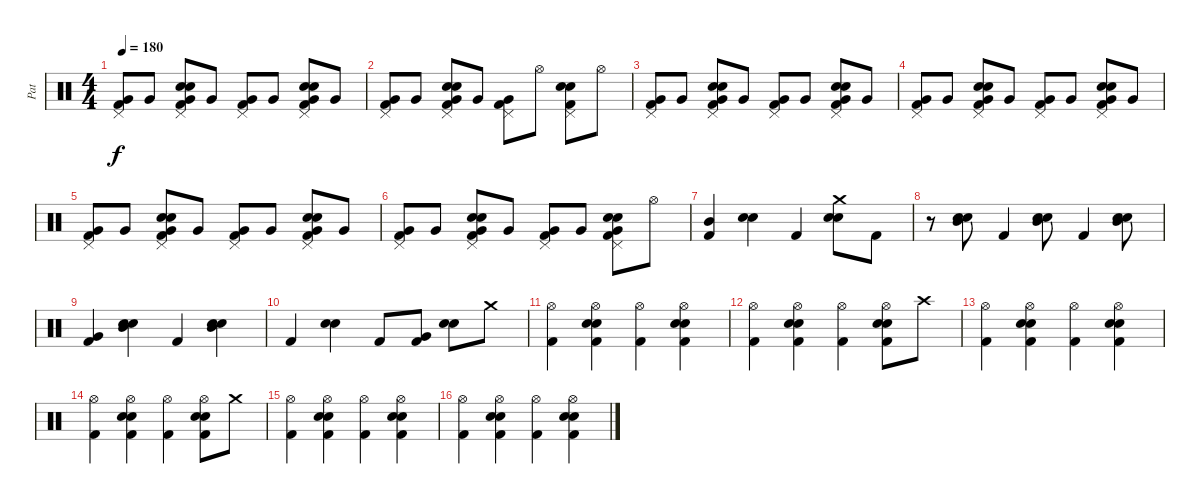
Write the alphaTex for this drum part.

\track ("Pat" "Pat") {instrument percussion}
\staff {score}
\articulation defaults
\ts (4 4)
\tempo 180
\clef neutral
\ks c
("Pedal Hi-Hat (hit)" "Very Low Tom (hit)" "Kick (hit) 2").8{dy f} "Very Low Tom (hit)".8 ("Pedal Hi-Hat (hit)" "Very Low Tom (hit)" "Snare (hit) 2" "Electric Snare (hit)" "Kick (hit) 2").8 "Very Low Tom (hit)".8 ("Pedal Hi-Hat (hit)" "Very Low Tom (hit)" "Kick (hit) 2").8 "Very Low Tom (hit)".8 ("Pedal Hi-Hat (hit)" "Very Low Tom (hit)" "Snare (hit) 2" "Electric Snare (hit)" "Kick (hit) 2").8 "Very Low Tom (hit)".8 |
("Pedal Hi-Hat (hit)" "Very Low Tom (hit)" "Kick (hit) 2").8 "Very Low Tom (hit)".8 ("Pedal Hi-Hat (hit)" "Very Low Tom (hit)" "Snare (hit) 2" "Electric Snare (hit)" "Kick (hit) 2").8 "Very Low Tom (hit)".8 ("Pedal Hi-Hat (hit)" "Very Low Tom (hit)" "Kick (hit) 2").8 "Hi-Hat (open)".8 ("Pedal Hi-Hat (hit)" "Snare (hit) 2" "Electric Snare (hit)" "Kick (hit) 2").8 "Hi-Hat (open)".8 |
("Pedal Hi-Hat (hit)" "Very Low Tom (hit)" "Kick (hit) 2").8 "Very Low Tom (hit)".8 ("Pedal Hi-Hat (hit)" "Very Low Tom (hit)" "Snare (hit) 2" "Electric Snare (hit)" "Kick (hit) 2").8 "Very Low Tom (hit)".8 ("Pedal Hi-Hat (hit)" "Very Low Tom (hit)" "Kick (hit) 2").8 "Very Low Tom (hit)".8 ("Pedal Hi-Hat (hit)" "Very Low Tom (hit)" "Snare (hit) 2" "Electric Snare (hit)" "Kick (hit) 2").8 "Very Low Tom (hit)".8 |
("Pedal Hi-Hat (hit)" "Very Low Tom (hit)" "Kick (hit) 2").8 "Very Low Tom (hit)".8 ("Pedal Hi-Hat (hit)" "Very Low Tom (hit)" "Snare (hit) 2" "Electric Snare (hit)" "Kick (hit) 2").8 "Very Low Tom (hit)".8 ("Pedal Hi-Hat (hit)" "Very Low Tom (hit)" "Kick (hit) 2").8 "Very Low Tom (hit)".8 ("Pedal Hi-Hat (hit)" "Very Low Tom (hit)" "Snare (hit) 2" "Electric Snare (hit)" "Kick (hit) 2").8 "Very Low Tom (hit)".8 |
("Pedal Hi-Hat (hit)" "Very Low Tom (hit)" "Kick (hit) 2").8 "Very Low Tom (hit)".8 ("Pedal Hi-Hat (hit)" "Very Low Tom (hit)" "Snare (hit) 2" "Electric Snare (hit)" "Kick (hit) 2").8 "Very Low Tom (hit)".8 ("Pedal Hi-Hat (hit)" "Very Low Tom (hit)" "Kick (hit) 2").8 "Very Low Tom (hit)".8 ("Pedal Hi-Hat (hit)" "Very Low Tom (hit)" "Snare (hit) 2" "Electric Snare (hit)" "Kick (hit) 2").8 "Very Low Tom (hit)".8 |
("Pedal Hi-Hat (hit)" "Very Low Tom (hit)" "Kick (hit) 2").8 "Very Low Tom (hit)".8 ("Pedal Hi-Hat (hit)" "Very Low Tom (hit)" "Snare (hit) 2" "Electric Snare (hit)" "Kick (hit) 2").8 "Very Low Tom (hit)".8 ("Pedal Hi-Hat (hit)" "Very Low Tom (hit)" "Kick (hit) 2").8 "Very Low Tom (hit)".8 ("Pedal Hi-Hat (hit)" "Very Low Tom (hit)" "Snare (hit) 2" "Electric Snare (hit)" "Kick (hit) 2").8 "Hi-Hat (open)".8 |
("Mid Tom (hit)" "Kick (hit) 2").4 ("Snare (hit) 2" "Electric Snare (hit)").4 "Kick (hit) 2".4 ("Crash medium (hit)" "Snare (hit) 2" "Electric Snare (hit)").8 "Kick (hit) 2".8 |
r.8 ("Mid Tom (hit)" "Snare (hit) 2" "Electric Snare (hit)").8 "Kick (hit) 2".4 ("Mid Tom (hit)" "Snare (hit) 2" "Electric Snare (hit)").8 "Kick (hit) 2".4 ("Mid Tom (hit)" "Snare (hit) 2" "Electric Snare (hit)").8 |
("Very Low Tom (hit)" "Kick (hit) 2").4 ("Mid Tom (hit)" "Snare (hit) 2" "Electric Snare (hit)").4 "Kick (hit) 2".4 ("Mid Tom (hit)" "Snare (hit) 2" "Electric Snare (hit)").4 |
"Kick (hit) 2".4 ("Snare (hit) 2" "Electric Snare (hit)").4 "Kick (hit) 2".8 ("Very Low Tom (hit)" "Kick (hit) 2").8 ("Snare (hit) 2" "Electric Snare (hit)").8 "Crash medium (hit)".8 |
("Hi-Hat (open)" "Kick (hit) 2").4 ("Hi-Hat (open)" "Snare (hit) 2" "Electric Snare (hit)" "Kick (hit) 2").4 ("Hi-Hat (open)" "Kick (hit) 2").4 ("Hi-Hat (open)" "Snare (hit) 2" "Electric Snare (hit)" "Kick (hit) 2").4 |
("Hi-Hat (open)" "Kick (hit) 2").4 ("Hi-Hat (open)" "Snare (hit) 2" "Electric Snare (hit)" "Kick (hit) 2").4 ("Hi-Hat (open)" "Kick (hit) 2").4 ("Hi-Hat (open)" "Snare (hit) 2" "Electric Snare (hit)" "Kick (hit) 2").8 "Crash high (hit)".8 |
("Hi-Hat (open)" "Kick (hit) 2").4 ("Hi-Hat (open)" "Snare (hit) 2" "Electric Snare (hit)" "Kick (hit) 2").4 ("Hi-Hat (open)" "Kick (hit) 2").4 ("Hi-Hat (open)" "Snare (hit) 2" "Electric Snare (hit)" "Kick (hit) 2").4 |
("Hi-Hat (open)" "Kick (hit) 2").4 ("Hi-Hat (open)" "Snare (hit) 2" "Electric Snare (hit)" "Kick (hit) 2").4 ("Hi-Hat (open)" "Kick (hit) 2").4 ("Hi-Hat (open)" "Snare (hit) 2" "Electric Snare (hit)" "Kick (hit) 2").8 "Crash medium (hit)".8 |
("Hi-Hat (open)" "Kick (hit) 2").4 ("Hi-Hat (open)" "Snare (hit) 2" "Electric Snare (hit)" "Kick (hit) 2").4 ("Hi-Hat (open)" "Kick (hit) 2").4 ("Hi-Hat (open)" "Snare (hit) 2" "Electric Snare (hit)" "Kick (hit) 2").4 |
("Hi-Hat (open)" "Kick (hit) 2").4 ("Hi-Hat (open)" "Snare (hit) 2" "Electric Snare (hit)" "Kick (hit) 2").4 ("Hi-Hat (open)" "Kick (hit) 2").4 ("Hi-Hat (open)" "Snare (hit) 2" "Electric Snare (hit)" "Kick (hit) 2").4
